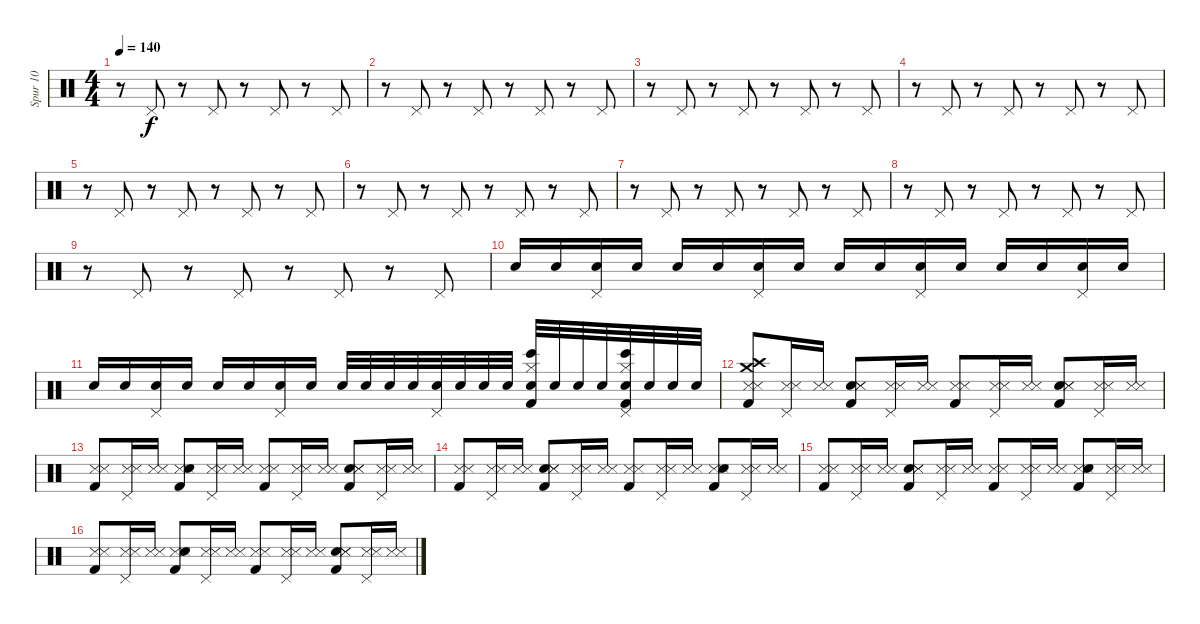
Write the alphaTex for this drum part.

\track ("Spur 10" "Spur 10") {instrument percussion}
\staff {score}
\articulation defaults
\ts (4 4)
\tempo 140
\clef neutral
\ks c
r.8{dy f} "Pedal Hi-Hat (hit)".8 r.8 "Pedal Hi-Hat (hit)".8 r.8 "Pedal Hi-Hat (hit)".8 r.8 "Pedal Hi-Hat (hit)".8 |
r.8 "Pedal Hi-Hat (hit)".8 r.8 "Pedal Hi-Hat (hit)".8 r.8 "Pedal Hi-Hat (hit)".8 r.8 "Pedal Hi-Hat (hit)".8 |
r.8 "Pedal Hi-Hat (hit)".8 r.8 "Pedal Hi-Hat (hit)".8 r.8 "Pedal Hi-Hat (hit)".8 r.8 "Pedal Hi-Hat (hit)".8 |
r.8 "Pedal Hi-Hat (hit)".8 r.8 "Pedal Hi-Hat (hit)".8 r.8 "Pedal Hi-Hat (hit)".8 r.8 "Pedal Hi-Hat (hit)".8 |
r.8 "Pedal Hi-Hat (hit)".8 r.8 "Pedal Hi-Hat (hit)".8 r.8 "Pedal Hi-Hat (hit)".8 r.8 "Pedal Hi-Hat (hit)".8 |
r.8 "Pedal Hi-Hat (hit)".8 r.8 "Pedal Hi-Hat (hit)".8 r.8 "Pedal Hi-Hat (hit)".8 r.8 "Pedal Hi-Hat (hit)".8 |
r.8 "Pedal Hi-Hat (hit)".8 r.8 "Pedal Hi-Hat (hit)".8 r.8 "Pedal Hi-Hat (hit)".8 r.8 "Pedal Hi-Hat (hit)".8 |
r.8 "Pedal Hi-Hat (hit)".8 r.8 "Pedal Hi-Hat (hit)".8 r.8 "Pedal Hi-Hat (hit)".8 r.8 "Pedal Hi-Hat (hit)".8 |
r.8 "Pedal Hi-Hat (hit)".8 r.8 "Pedal Hi-Hat (hit)".8 r.8 "Pedal Hi-Hat (hit)".8 r.8 "Pedal Hi-Hat (hit)".8 |
"Snare (hit) 2".16{volume 7} "Snare (hit) 2".16{volume 7} ("Pedal Hi-Hat (hit)" "Snare (hit) 2").16{volume 7} "Snare (hit) 2".16{volume 8} "Snare (hit) 2".16{volume 8} "Snare (hit) 2".16{volume 8} ("Pedal Hi-Hat (hit)" "Snare (hit) 2").16{volume 9} "Snare (hit) 2".16{volume 9} "Snare (hit) 2".16{volume 9} "Snare (hit) 2".16{volume 10} ("Pedal Hi-Hat (hit)" "Snare (hit) 2").16{volume 10} "Snare (hit) 2".16{volume 10} "Snare (hit) 2".16{volume 11} "Snare (hit) 2".16{volume 11} ("Pedal Hi-Hat (hit)" "Snare (hit) 2").16{volume 11} "Snare (hit) 2".16{volume 12} |
"Snare (hit) 2".16{volume 12} "Snare (hit) 2".16{volume 12} ("Pedal Hi-Hat (hit)" "Snare (hit) 2").16{volume 13} "Snare (hit) 2".16{volume 13} "Snare (hit) 2".16{volume 13} "Snare (hit) 2".16{volume 14} ("Pedal Hi-Hat (hit)" "Snare (hit) 2").16{volume 15} "Snare (hit) 2".16{volume 16} "Snare (hit) 2".32{volume 16} "Snare (hit) 2".32 "Snare (hit) 2".32 "Snare (hit) 2".32 ("Pedal Hi-Hat (hit)" "Snare (hit) 2").32 "Snare (hit) 2".32 "Snare (hit) 2".32 "Snare (hit) 2".32 ("Hi-Hat (closed)" "Bongo High (hit)" "Kick (hit) 2" "Snare (hit) 2").32 "Snare (hit) 2".32 "Snare (hit) 2".32 "Snare (hit) 2".32 ("Bongo High (hit)" "Pedal Hi-Hat (hit)" "Kick (hit) 2" "Hi-Hat (closed)" "Snare (hit) 2").32 "Snare (hit) 2".32 "Snare (hit) 2".32 "Snare (hit) 2".32 |
("Crash medium (hit)" "Kick (hit) 2" "Snare (side stick) 3" "Crash high (hit)" "Metronome (hit)").8 ("Snare (side stick) 3" "Pedal Hi-Hat (hit)" "Metronome (hit)").16 ("Snare (side stick) 3" "Metronome (hit)").16 ("Kick (hit) 2" "Snare (hit) 2" "Snare (side stick) 3" "Metronome (hit)").8 ("Snare (side stick) 3" "Pedal Hi-Hat (hit)" "Metronome (hit)").16 ("Snare (side stick) 3" "Metronome (hit)").16 ("Snare (side stick) 3" "Kick (hit) 2" "Metronome (hit)").8 ("Snare (side stick) 3" "Pedal Hi-Hat (hit)" "Metronome (hit)").16 ("Snare (side stick) 3" "Metronome (hit)").16 ("Kick (hit) 2" "Snare (hit) 2" "Snare (side stick) 3" "Metronome (hit)").8 ("Pedal Hi-Hat (hit)" "Snare (side stick) 3" "Metronome (hit)").16 ("Snare (side stick) 3" "Metronome (hit)").16 |
("Kick (hit) 2" "Snare (side stick) 3" "Metronome (hit)").8 ("Pedal Hi-Hat (hit)" "Snare (side stick) 3" "Metronome (hit)").16 ("Snare (side stick) 3" "Metronome (hit)").16 ("Snare (side stick) 3" "Snare (hit) 2" "Kick (hit) 2" "Metronome (hit)").8 ("Pedal Hi-Hat (hit)" "Snare (side stick) 3" "Metronome (hit)").16 ("Snare (side stick) 3" "Metronome (hit)").16 ("Kick (hit) 2" "Snare (side stick) 3" "Metronome (hit)").8 ("Pedal Hi-Hat (hit)" "Snare (side stick) 3" "Metronome (hit)").16 ("Snare (side stick) 3" "Metronome (hit)").16 ("Kick (hit) 2" "Snare (hit) 2" "Snare (side stick) 3" "Metronome (hit)").8 ("Pedal Hi-Hat (hit)" "Snare (side stick) 3" "Metronome (hit)").16 ("Snare (side stick) 3" "Metronome (hit)").16 |
("Kick (hit) 2" "Snare (side stick) 3" "Metronome (hit)").8 ("Snare (side stick) 3" "Pedal Hi-Hat (hit)" "Metronome (hit)").16 ("Snare (side stick) 3" "Metronome (hit)").16 ("Snare (hit) 2" "Kick (hit) 2" "Snare (side stick) 3" "Metronome (hit)").8 ("Pedal Hi-Hat (hit)" "Snare (side stick) 3" "Metronome (hit)").16 ("Snare (side stick) 3" "Metronome (hit)").16 ("Snare (side stick) 3" "Kick (hit) 2" "Metronome (hit)").8 ("Snare (side stick) 3" "Pedal Hi-Hat (hit)" "Metronome (hit)").16 ("Snare (side stick) 3" "Metronome (hit)").16 ("Kick (hit) 2" "Snare (side stick) 3" "Snare (hit) 2" "Metronome (hit)").8 ("Pedal Hi-Hat (hit)" "Snare (side stick) 3" "Metronome (hit)").16 ("Snare (side stick) 3" "Metronome (hit)").16 |
("Kick (hit) 2" "Snare (side stick) 3" "Metronome (hit)").8 ("Snare (side stick) 3" "Pedal Hi-Hat (hit)" "Metronome (hit)").16 ("Snare (side stick) 3" "Metronome (hit)").16 ("Kick (hit) 2" "Snare (hit) 2" "Snare (side stick) 3" "Metronome (hit)").8 ("Snare (side stick) 3" "Pedal Hi-Hat (hit)" "Metronome (hit)").16 ("Snare (side stick) 3" "Metronome (hit)").16 ("Kick (hit) 2" "Snare (side stick) 3" "Metronome (hit)").8 ("Pedal Hi-Hat (hit)" "Snare (side stick) 3" "Metronome (hit)").16 ("Snare (side stick) 3" "Metronome (hit)").16 ("Snare (side stick) 3" "Snare (hit) 2" "Kick (hit) 2" "Metronome (hit)").8 ("Snare (side stick) 3" "Pedal Hi-Hat (hit)" "Metronome (hit)").16 ("Snare (side stick) 3" "Metronome (hit)").16 |
("Kick (hit) 2" "Snare (side stick) 3" "Metronome (hit)").8 ("Pedal Hi-Hat (hit)" "Snare (side stick) 3" "Metronome (hit)").16 ("Snare (side stick) 3" "Metronome (hit)").16 ("Kick (hit) 2" "Snare (side stick) 3" "Snare (hit) 2" "Metronome (hit)").8 ("Snare (side stick) 3" "Pedal Hi-Hat (hit)" "Metronome (hit)").16 ("Snare (side stick) 3" "Metronome (hit)").16 ("Kick (hit) 2" "Snare (side stick) 3" "Metronome (hit)").8 ("Pedal Hi-Hat (hit)" "Snare (side stick) 3" "Metronome (hit)").16 ("Snare (side stick) 3" "Metronome (hit)").16 ("Snare (hit) 2" "Snare (side stick) 3" "Kick (hit) 2" "Metronome (hit)").8 ("Pedal Hi-Hat (hit)" "Snare (side stick) 3" "Metronome (hit)").16 ("Snare (side stick) 3" "Metronome (hit)").16
